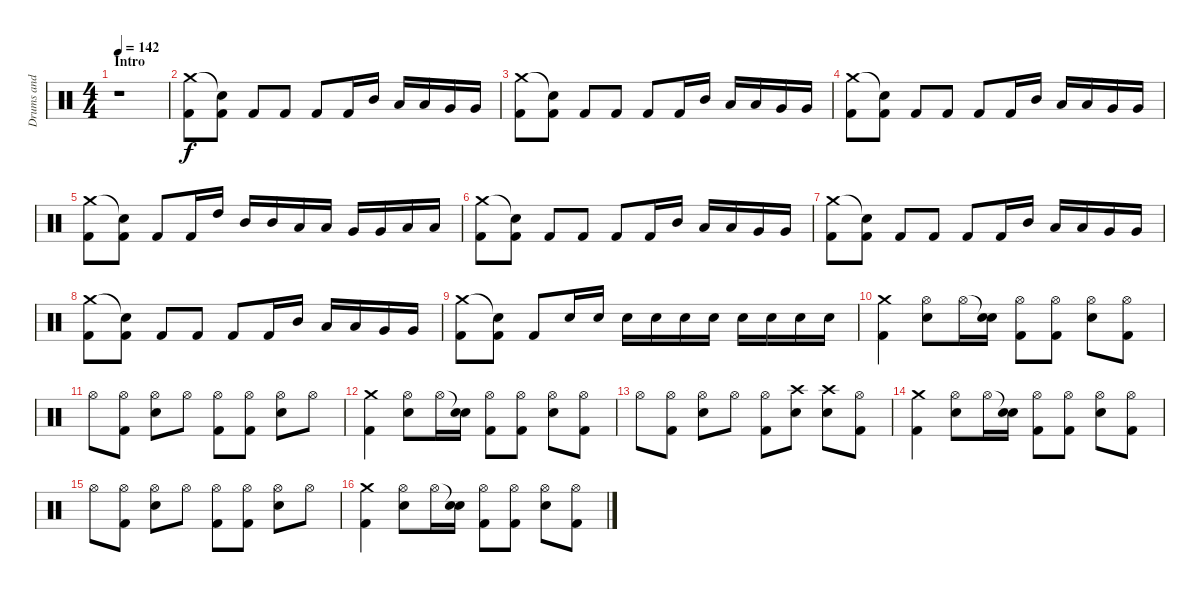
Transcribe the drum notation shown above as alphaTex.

\track ("Drums and Percussion" "Drums and ") {instrument percussion}
\staff {score}
\articulation defaults
\ts (4 4)
\section ("" "Intro")
\tempo 142
\clef neutral
\ks c
r.1{dy f} |
("Crash medium (hit)" "Kick (hit) 2").8 ("Snare (hit)"{t} "Kick (hit) 2").8 "Kick (hit) 2".8 "Kick (hit) 2".8 "Kick (hit) 2".8 "Kick (hit) 2".16 "Mid Tom (hit)".16 "Low Tom (hit)".16 "Low Tom (hit)".16 "Very Low Tom (hit)".16 "Very Low Tom (hit)".16 |
("Crash medium (hit)" "Kick (hit) 2").8 ("Snare (hit)"{t} "Kick (hit) 2").8 "Kick (hit) 2".8 "Kick (hit) 2".8 "Kick (hit) 2".8 "Kick (hit) 2".16 "Mid Tom (hit)".16 "Low Tom (hit)".16 "Low Tom (hit)".16 "Very Low Tom (hit)".16 "Very Low Tom (hit)".16 |
("Crash medium (hit)" "Kick (hit) 2").8 ("Snare (hit)"{t} "Kick (hit) 2").8 "Kick (hit) 2".8 "Kick (hit) 2".8 "Kick (hit) 2".8 "Kick (hit) 2".16 "Mid Tom (hit)".16 "Low Tom (hit)".16 "Low Tom (hit)".16 "Very Low Tom (hit)".16 "Very Low Tom (hit)".16 |
("Crash medium (hit)" "Kick (hit) 2").8 ("Snare (hit)"{t} "Kick (hit) 2").8 "Kick (hit) 2".8 "Kick (hit) 2".16 "High Tom (hit)".16 "Mid Tom (hit)".16 "Mid Tom (hit)".16 "Low Tom (hit)".16 "Low Tom (hit)".16 "Very Low Tom (hit)".16 "Very Low Tom (hit)".16 "Low Floor Tom (hit)".16 "Low Floor Tom (hit)".16 |
("Crash medium (hit)" "Kick (hit) 2").8 ("Snare (hit)"{t} "Kick (hit) 2").8 "Kick (hit) 2".8 "Kick (hit) 2".8 "Kick (hit) 2".8 "Kick (hit) 2".16 "Mid Tom (hit)".16 "Low Tom (hit)".16 "Low Tom (hit)".16 "Very Low Tom (hit)".16 "Very Low Tom (hit)".16 |
("Crash medium (hit)" "Kick (hit) 2").8 ("Snare (hit)"{t} "Kick (hit) 2").8 "Kick (hit) 2".8 "Kick (hit) 2".8 "Kick (hit) 2".8 "Kick (hit) 2".16 "Mid Tom (hit)".16 "Low Tom (hit)".16 "Low Tom (hit)".16 "Very Low Tom (hit)".16 "Very Low Tom (hit)".16 |
("Crash medium (hit)" "Kick (hit) 2").8 ("Snare (hit)"{t} "Kick (hit) 2").8 "Kick (hit) 2".8 "Kick (hit) 2".8 "Kick (hit) 2".8 "Kick (hit) 2".16 "Mid Tom (hit)".16 "Low Tom (hit)".16 "Low Tom (hit)".16 "Very Low Tom (hit)".16 "Very Low Tom (hit)".16 |
("Crash medium (hit)" "Kick (hit) 2").8 ("Snare (hit)"{t} "Kick (hit) 2").8 "Kick (hit) 2".8 "Electric Snare (hit)".16 "Electric Snare (hit)".16 "Electric Snare (hit)".16 "Electric Snare (hit)".16 "Electric Snare (hit)".16 "Electric Snare (hit)".16 "Electric Snare (hit)".16 "Electric Snare (hit)".16 "Electric Snare (hit)".16 "Electric Snare (hit)".16 |
("Crash medium (hit)" "Kick (hit) 2").4 ("Hi-Hat (open)" "Electric Snare (hit)").8 "Hi-Hat (open)".16 ("Snare (hit)"{t} "Electric Snare (hit)").16 ("Hi-Hat (open)" "Kick (hit) 2").8 ("Hi-Hat (open)" "Kick (hit) 2").8 ("Hi-Hat (open)" "Electric Snare (hit)").8 ("Hi-Hat (open)" "Kick (hit) 2").8 |
"Hi-Hat (open)".8 ("Hi-Hat (open)" "Kick (hit) 2").8 ("Hi-Hat (open)" "Electric Snare (hit)").8 "Hi-Hat (open)".8 ("Hi-Hat (open)" "Kick (hit) 2").8 ("Hi-Hat (open)" "Kick (hit) 2").8 ("Hi-Hat (open)" "Electric Snare (hit)").8 "Hi-Hat (open)".8 |
("Crash medium (hit)" "Kick (hit) 2").4 ("Hi-Hat (open)" "Electric Snare (hit)").8 "Hi-Hat (open)".16 ("Snare (hit)"{t} "Electric Snare (hit)").16 ("Hi-Hat (open)" "Kick (hit) 2").8 ("Hi-Hat (open)" "Kick (hit) 2").8 ("Hi-Hat (open)" "Electric Snare (hit)").8 ("Hi-Hat (open)" "Kick (hit) 2").8 |
"Hi-Hat (open)".8 ("Hi-Hat (open)" "Kick (hit) 2").8 ("Hi-Hat (open)" "Electric Snare (hit)").8 "Hi-Hat (open)".8 ("Hi-Hat (open)" "Kick (hit) 2").8 ("Crash high (hit)" "Electric Snare (hit)").8 ("Crash high (hit)" "Electric Snare (hit)").8 ("Hi-Hat (open)" "Kick (hit) 2").8 |
("Crash medium (hit)" "Kick (hit) 2").4 ("Hi-Hat (open)" "Electric Snare (hit)").8 "Hi-Hat (open)".16 ("Snare (hit)"{t} "Electric Snare (hit)").16 ("Hi-Hat (open)" "Kick (hit) 2").8 ("Hi-Hat (open)" "Kick (hit) 2").8 ("Hi-Hat (open)" "Electric Snare (hit)").8 ("Hi-Hat (open)" "Kick (hit) 2").8 |
"Hi-Hat (open)".8 ("Hi-Hat (open)" "Kick (hit) 2").8 ("Hi-Hat (open)" "Electric Snare (hit)").8 "Hi-Hat (open)".8 ("Hi-Hat (open)" "Kick (hit) 2").8 ("Hi-Hat (open)" "Kick (hit) 2").8 ("Hi-Hat (open)" "Electric Snare (hit)").8 "Hi-Hat (open)".8 |
("Crash medium (hit)" "Kick (hit) 2").4 ("Hi-Hat (open)" "Electric Snare (hit)").8 "Hi-Hat (open)".16 ("Snare (hit)"{t} "Electric Snare (hit)").16 ("Hi-Hat (open)" "Kick (hit) 2").8 ("Hi-Hat (open)" "Kick (hit) 2").8 ("Hi-Hat (open)" "Electric Snare (hit)").8 ("Hi-Hat (open)" "Kick (hit) 2").8
